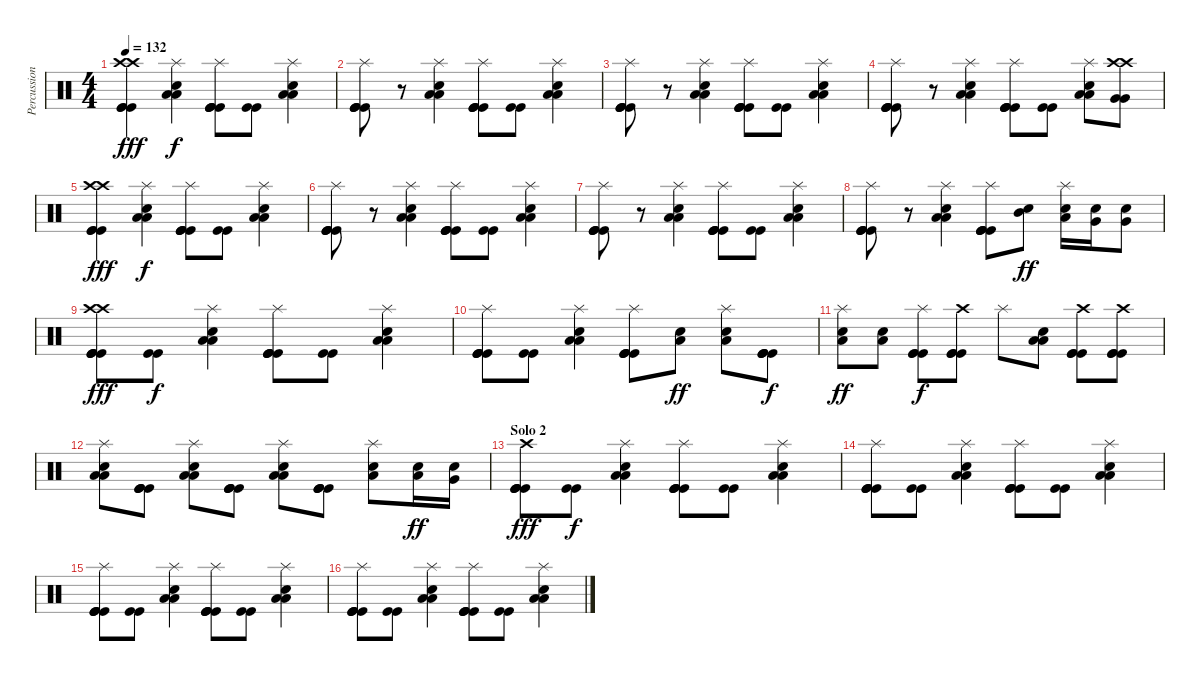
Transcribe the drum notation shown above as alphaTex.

\track ("Percussion" "Percussion") {instrument percussion}
\staff {score}
\articulation defaults
\ts (4 4)
\tempo 132
\clef neutral
\ks c
("Crash high (hit)" "Crash high (hit)" "Kick (hit)" "Kick (hit)" "Kick (hit)").4{dy fff} ("Splash (hit)" "Low Tom (hit)" "Low Tom (hit)" "Electric Snare (hit)").4{dy f} ("Splash (hit)" "Kick (hit)" "Kick (hit)" "Kick (hit)" "Kick (hit)").8 ("Kick (hit)" "Kick (hit)").8 ("Splash (hit)" "Low Tom (hit)" "Low Tom (hit)" "Electric Snare (hit)").4 |
("Splash (hit)" "Kick (hit)" "Kick (hit)" "Kick (hit)" "Kick (hit)").8 r.8 ("Splash (hit)" "Low Tom (hit)" "Low Tom (hit)" "Electric Snare (hit)").4 ("Splash (hit)" "Kick (hit)" "Kick (hit)" "Kick (hit)" "Kick (hit)").8 ("Kick (hit)" "Kick (hit)").8 ("Splash (hit)" "Low Tom (hit)" "Low Tom (hit)" "Electric Snare (hit)").4 |
("Splash (hit)" "Kick (hit)" "Kick (hit)" "Kick (hit)" "Kick (hit)").8 r.8 ("Splash (hit)" "Low Tom (hit)" "Low Tom (hit)" "Electric Snare (hit)").4 ("Splash (hit)" "Kick (hit)" "Kick (hit)" "Kick (hit)" "Kick (hit)").8 ("Kick (hit)" "Kick (hit)").8 ("Splash (hit)" "Low Tom (hit)" "Low Tom (hit)" "Electric Snare (hit)").4 |
("Splash (hit)" "Kick (hit)" "Kick (hit)" "Kick (hit)" "Kick (hit)").8 r.8 ("Splash (hit)" "Low Tom (hit)" "Low Tom (hit)" "Electric Snare (hit)").4 ("Splash (hit)" "Kick (hit)" "Kick (hit)" "Kick (hit)" "Kick (hit)").8 ("Kick (hit)" "Kick (hit)").8 ("Splash (hit)" "Low Tom (hit)" "Low Tom (hit)" "Electric Snare (hit)").8 ("Crash high (hit)" "Crash high (hit)" "Very Low Tom (hit)" "Very Low Tom (hit)").8 |
("Crash high (hit)" "Crash high (hit)" "Kick (hit)" "Kick (hit)" "Kick (hit)").4{dy fff} ("Splash (hit)" "Low Tom (hit)" "Low Tom (hit)" "Electric Snare (hit)").4{dy f} ("Splash (hit)" "Kick (hit)" "Kick (hit)" "Kick (hit)" "Kick (hit)").8 ("Kick (hit)" "Kick (hit)").8 ("Splash (hit)" "Low Tom (hit)" "Low Tom (hit)" "Electric Snare (hit)").4 |
("Splash (hit)" "Kick (hit)" "Kick (hit)" "Kick (hit)" "Kick (hit)").8 r.8 ("Splash (hit)" "Low Tom (hit)" "Low Tom (hit)" "Electric Snare (hit)").4 ("Splash (hit)" "Kick (hit)" "Kick (hit)" "Kick (hit)" "Kick (hit)").8 ("Kick (hit)" "Kick (hit)").8 ("Splash (hit)" "Low Tom (hit)" "Low Tom (hit)" "Electric Snare (hit)").4 |
("Splash (hit)" "Kick (hit)" "Kick (hit)" "Kick (hit)" "Kick (hit)").8 r.8 ("Splash (hit)" "Low Tom (hit)" "Low Tom (hit)" "Electric Snare (hit)").4 ("Splash (hit)" "Kick (hit)" "Kick (hit)" "Kick (hit)" "Kick (hit)").8 ("Kick (hit)" "Kick (hit)").8 ("Splash (hit)" "Low Tom (hit)" "Low Tom (hit)" "Electric Snare (hit)").4 |
("Splash (hit)" "Kick (hit)" "Kick (hit)" "Kick (hit)" "Kick (hit)").8 r.8 ("Splash (hit)" "Low Tom (hit)" "Low Tom (hit)" "Electric Snare (hit)").4 ("Splash (hit)" "Kick (hit)" "Kick (hit)" "Kick (hit)" "Kick (hit)").8 ("Mid Tom (hit)" "Electric Snare (hit)").8{dy ff} ("Splash (hit)" "Low Tom (hit)" "Electric Snare (hit)").16 ("Very Low Tom (hit)" "Electric Snare (hit)").16 ("Very Low Tom (hit)" "Electric Snare (hit)").8 |
("Crash high (hit)" "Crash high (hit)" "Kick (hit)" "Kick (hit)" "Kick (hit)" "Kick (hit)").8{dy fff} ("Kick (hit)" "Kick (hit)").8{dy f} ("Splash (hit)" "Low Tom (hit)" "Low Tom (hit)" "Electric Snare (hit)").4 ("Splash (hit)" "Kick (hit)" "Kick (hit)" "Kick (hit)" "Kick (hit)").8 ("Kick (hit)" "Kick (hit)").8 ("Splash (hit)" "Low Tom (hit)" "Low Tom (hit)" "Electric Snare (hit)").4 |
("Splash (hit)" "Kick (hit)" "Kick (hit)" "Kick (hit)" "Kick (hit)").8 ("Kick (hit)" "Kick (hit)").8 ("Splash (hit)" "Low Tom (hit)" "Low Tom (hit)" "Electric Snare (hit)").4 ("Splash (hit)" "Kick (hit)" "Kick (hit)" "Kick (hit)" "Kick (hit)").8 ("Low Tom (hit)" "Electric Snare (hit)").8{dy ff} ("Splash (hit)" "Low Tom (hit)" "Electric Snare (hit)").8 ("Kick (hit)" "Kick (hit)" "Kick (hit)" "Kick (hit)").8{dy f} |
("Splash (hit)" "Low Tom (hit)" "Electric Snare (hit)").8{dy ff} ("Low Tom (hit)" "Electric Snare (hit)").8 ("Splash (hit)" "Kick (hit)" "Kick (hit)" "Kick (hit)").8{dy f} ("Crash high (hit)" "Kick (hit)" "Kick (hit)" "Kick (hit)").8 "Splash (hit)".8 ("Low Tom (hit)" "Low Tom (hit)" "Electric Snare (hit)").8 ("Crash high (hit)" "Kick (hit)" "Kick (hit)" "Kick (hit)").8 ("Crash high (hit)" "Kick (hit)" "Kick (hit)" "Kick (hit)").8 |
("Splash (hit)" "Low Tom (hit)" "Low Tom (hit)" "Electric Snare (hit)").8 ("Kick (hit)" "Kick (hit)" "Kick (hit)" "Kick (hit)").8 ("Splash (hit)" "Low Tom (hit)" "Low Tom (hit)" "Electric Snare (hit)").8 ("Kick (hit)" "Kick (hit)" "Kick (hit)" "Kick (hit)").8 ("Splash (hit)" "Low Tom (hit)" "Low Tom (hit)" "Electric Snare (hit)").8 ("Kick (hit)" "Kick (hit)" "Kick (hit)" "Kick (hit)").8 ("Splash (hit)" "Low Tom (hit)" "Electric Snare (hit)").8 ("Low Tom (hit)" "Electric Snare (hit)").16{dy ff} ("Very Low Tom (hit)" "Electric Snare (hit)").16 |
\section ("" "Solo 2")
("Crash high (hit)" "Kick (hit)" "Kick (hit)" "Kick (hit)" "Kick (hit)").8{dy fff} ("Kick (hit)" "Kick (hit)").8{dy f} ("Splash (hit)" "Low Tom (hit)" "Low Tom (hit)" "Electric Snare (hit)").4 ("Splash (hit)" "Kick (hit)" "Kick (hit)" "Kick (hit)" "Kick (hit)").8 ("Kick (hit)" "Kick (hit)").8 ("Splash (hit)" "Low Tom (hit)" "Low Tom (hit)" "Electric Snare (hit)").4 |
("Splash (hit)" "Kick (hit)" "Kick (hit)" "Kick (hit)" "Kick (hit)").8 ("Kick (hit)" "Kick (hit)").8 ("Splash (hit)" "Low Tom (hit)" "Low Tom (hit)" "Electric Snare (hit)").4 ("Splash (hit)" "Kick (hit)" "Kick (hit)" "Kick (hit)" "Kick (hit)").8 ("Kick (hit)" "Kick (hit)").8 ("Splash (hit)" "Low Tom (hit)" "Low Tom (hit)" "Electric Snare (hit)").4 |
("Splash (hit)" "Kick (hit)" "Kick (hit)" "Kick (hit)" "Kick (hit)").8 ("Kick (hit)" "Kick (hit)").8 ("Splash (hit)" "Low Tom (hit)" "Low Tom (hit)" "Electric Snare (hit)").4 ("Splash (hit)" "Kick (hit)" "Kick (hit)" "Kick (hit)" "Kick (hit)").8 ("Kick (hit)" "Kick (hit)").8 ("Splash (hit)" "Low Tom (hit)" "Low Tom (hit)" "Electric Snare (hit)").4 |
("Splash (hit)" "Kick (hit)" "Kick (hit)" "Kick (hit)" "Kick (hit)").8 ("Kick (hit)" "Kick (hit)").8 ("Splash (hit)" "Low Tom (hit)" "Low Tom (hit)" "Electric Snare (hit)").4 ("Splash (hit)" "Kick (hit)" "Kick (hit)" "Kick (hit)" "Kick (hit)").8 ("Kick (hit)" "Kick (hit)").8 ("Splash (hit)" "Low Tom (hit)" "Low Tom (hit)" "Electric Snare (hit)").4
